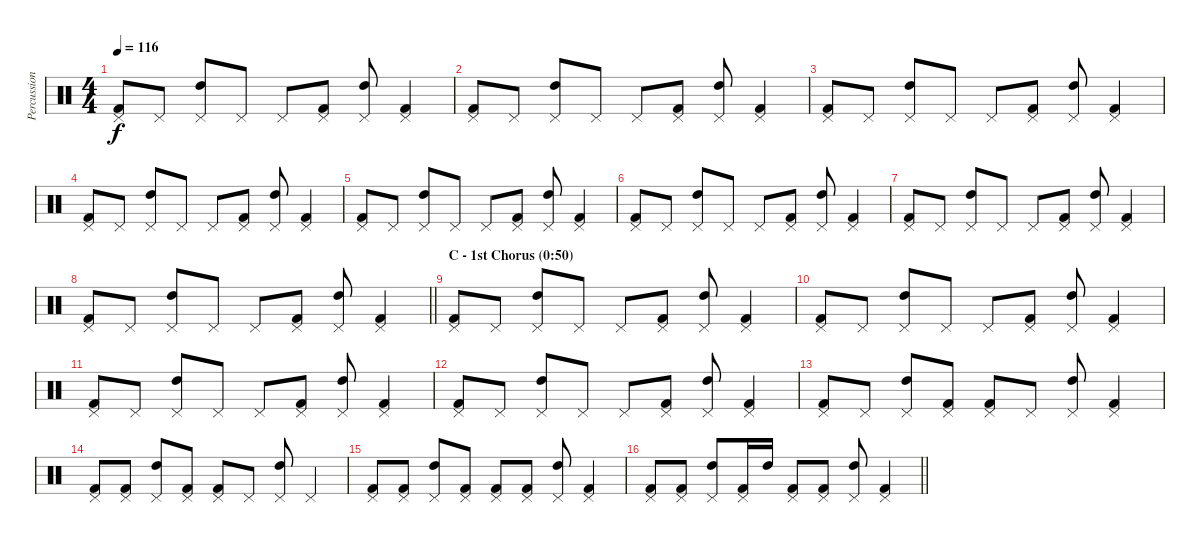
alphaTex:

\track ("Percussion" "Percussion") {instrument percussion}
\staff {score}
\articulation defaults
\ts (4 4)
\tempo 116
\clef neutral
\ks c
("Kick (hit) 2" "Pedal Hi-Hat (hit)").8{dy f} "Pedal Hi-Hat (hit)".8 ("High Tom (hit)" "Pedal Hi-Hat (hit)").8 "Pedal Hi-Hat (hit)".8 "Pedal Hi-Hat (hit)".8 ("Kick (hit) 2" "Pedal Hi-Hat (hit)").8 ("High Tom (hit)" "Pedal Hi-Hat (hit)").8 ("Kick (hit) 2" "Pedal Hi-Hat (hit)").4 |
("Kick (hit) 2" "Pedal Hi-Hat (hit)").8 "Pedal Hi-Hat (hit)".8 ("High Tom (hit)" "Pedal Hi-Hat (hit)").8 "Pedal Hi-Hat (hit)".8 "Pedal Hi-Hat (hit)".8 ("Kick (hit) 2" "Pedal Hi-Hat (hit)").8 ("High Tom (hit)" "Pedal Hi-Hat (hit)").8 ("Kick (hit) 2" "Pedal Hi-Hat (hit)").4 |
("Kick (hit) 2" "Pedal Hi-Hat (hit)").8 "Pedal Hi-Hat (hit)".8 ("High Tom (hit)" "Pedal Hi-Hat (hit)").8 "Pedal Hi-Hat (hit)".8 "Pedal Hi-Hat (hit)".8 ("Kick (hit) 2" "Pedal Hi-Hat (hit)").8 ("High Tom (hit)" "Pedal Hi-Hat (hit)").8 ("Kick (hit) 2" "Pedal Hi-Hat (hit)").4 |
("Kick (hit) 2" "Pedal Hi-Hat (hit)").8 "Pedal Hi-Hat (hit)".8 ("High Tom (hit)" "Pedal Hi-Hat (hit)").8 "Pedal Hi-Hat (hit)".8 "Pedal Hi-Hat (hit)".8 ("Kick (hit) 2" "Pedal Hi-Hat (hit)").8 ("High Tom (hit)" "Pedal Hi-Hat (hit)").8 ("Kick (hit) 2" "Pedal Hi-Hat (hit)").4 |
("Kick (hit) 2" "Pedal Hi-Hat (hit)").8 "Pedal Hi-Hat (hit)".8 ("High Tom (hit)" "Pedal Hi-Hat (hit)").8 "Pedal Hi-Hat (hit)".8 "Pedal Hi-Hat (hit)".8 ("Kick (hit) 2" "Pedal Hi-Hat (hit)").8 ("High Tom (hit)" "Pedal Hi-Hat (hit)").8 ("Kick (hit) 2" "Pedal Hi-Hat (hit)").4 |
("Kick (hit) 2" "Pedal Hi-Hat (hit)").8 "Pedal Hi-Hat (hit)".8 ("High Tom (hit)" "Pedal Hi-Hat (hit)").8 "Pedal Hi-Hat (hit)".8 "Pedal Hi-Hat (hit)".8 ("Kick (hit) 2" "Pedal Hi-Hat (hit)").8 ("High Tom (hit)" "Pedal Hi-Hat (hit)").8 ("Kick (hit) 2" "Pedal Hi-Hat (hit)").4 |
("Kick (hit) 2" "Pedal Hi-Hat (hit)").8 "Pedal Hi-Hat (hit)".8 ("High Tom (hit)" "Pedal Hi-Hat (hit)").8 "Pedal Hi-Hat (hit)".8 "Pedal Hi-Hat (hit)".8 ("Kick (hit) 2" "Pedal Hi-Hat (hit)").8 ("High Tom (hit)" "Pedal Hi-Hat (hit)").8 ("Kick (hit) 2" "Pedal Hi-Hat (hit)").4 |
\barLineRight lightlight
("Kick (hit) 2" "Pedal Hi-Hat (hit)").8 "Pedal Hi-Hat (hit)".8 ("High Tom (hit)" "Pedal Hi-Hat (hit)").8 "Pedal Hi-Hat (hit)".8 "Pedal Hi-Hat (hit)".8 ("Kick (hit) 2" "Pedal Hi-Hat (hit)").8 ("High Tom (hit)" "Pedal Hi-Hat (hit)").8 ("Kick (hit) 2" "Pedal Hi-Hat (hit)").4 |
\section ("" "C - 1st Chorus (0:50)")
("Kick (hit) 2" "Pedal Hi-Hat (hit)").8 "Pedal Hi-Hat (hit)".8 ("High Tom (hit)" "Pedal Hi-Hat (hit)").8 "Pedal Hi-Hat (hit)".8 "Pedal Hi-Hat (hit)".8 ("Kick (hit) 2" "Pedal Hi-Hat (hit)").8 ("High Tom (hit)" "Pedal Hi-Hat (hit)").8 ("Kick (hit) 2" "Pedal Hi-Hat (hit)").4 |
("Kick (hit) 2" "Pedal Hi-Hat (hit)").8 "Pedal Hi-Hat (hit)".8 ("High Tom (hit)" "Pedal Hi-Hat (hit)").8 "Pedal Hi-Hat (hit)".8 "Pedal Hi-Hat (hit)".8 ("Kick (hit) 2" "Pedal Hi-Hat (hit)").8 ("High Tom (hit)" "Pedal Hi-Hat (hit)").8 ("Kick (hit) 2" "Pedal Hi-Hat (hit)").4 |
("Kick (hit) 2" "Pedal Hi-Hat (hit)").8 "Pedal Hi-Hat (hit)".8 ("High Tom (hit)" "Pedal Hi-Hat (hit)").8 "Pedal Hi-Hat (hit)".8 "Pedal Hi-Hat (hit)".8 ("Kick (hit) 2" "Pedal Hi-Hat (hit)").8 ("High Tom (hit)" "Pedal Hi-Hat (hit)").8 ("Kick (hit) 2" "Pedal Hi-Hat (hit)").4 |
("Kick (hit) 2" "Pedal Hi-Hat (hit)").8 "Pedal Hi-Hat (hit)".8 ("High Tom (hit)" "Pedal Hi-Hat (hit)").8 "Pedal Hi-Hat (hit)".8 "Pedal Hi-Hat (hit)".8 ("Kick (hit) 2" "Pedal Hi-Hat (hit)").8 ("High Tom (hit)" "Pedal Hi-Hat (hit)").8 ("Kick (hit) 2" "Pedal Hi-Hat (hit)").4 |
("Kick (hit) 2" "Pedal Hi-Hat (hit)").8 "Pedal Hi-Hat (hit)".8 ("High Tom (hit)" "Pedal Hi-Hat (hit)").8 ("Pedal Hi-Hat (hit)" "Kick (hit) 2").8 ("Pedal Hi-Hat (hit)" "Kick (hit) 2").8 "Pedal Hi-Hat (hit)".8 ("High Tom (hit)" "Pedal Hi-Hat (hit)").8 ("Kick (hit) 2" "Pedal Hi-Hat (hit)").4 |
("Kick (hit) 2" "Pedal Hi-Hat (hit)").8 ("Pedal Hi-Hat (hit)" "Kick (hit) 2").8 ("High Tom (hit)" "Pedal Hi-Hat (hit)").8 ("Pedal Hi-Hat (hit)" "Kick (hit) 2").8 ("Pedal Hi-Hat (hit)" "Kick (hit) 2").8 "Pedal Hi-Hat (hit)".8 ("High Tom (hit)" "Pedal Hi-Hat (hit)").8 "Pedal Hi-Hat (hit)".4 |
("Kick (hit) 2" "Pedal Hi-Hat (hit)").8 ("Pedal Hi-Hat (hit)" "Kick (hit) 2").8 ("High Tom (hit)" "Pedal Hi-Hat (hit)").8 ("Pedal Hi-Hat (hit)" "Kick (hit) 2").8 ("Pedal Hi-Hat (hit)" "Kick (hit) 2").8 ("Kick (hit) 2" "Pedal Hi-Hat (hit)").8 ("High Tom (hit)" "Pedal Hi-Hat (hit)").8 ("Kick (hit) 2" "Pedal Hi-Hat (hit)").4 |
\barLineRight lightlight
("Kick (hit) 2" "Pedal Hi-Hat (hit)").8 ("Pedal Hi-Hat (hit)" "Kick (hit) 2").8 ("High Tom (hit)" "Pedal Hi-Hat (hit)").8 ("Pedal Hi-Hat (hit)" "Kick (hit) 2").16 "High Tom (hit)".16 ("Kick (hit) 2" "Pedal Hi-Hat (hit)").8 ("Kick (hit) 2" "Pedal Hi-Hat (hit)").8 ("High Tom (hit)" "Pedal Hi-Hat (hit)").8 ("Kick (hit) 2" "Pedal Hi-Hat (hit)").4
